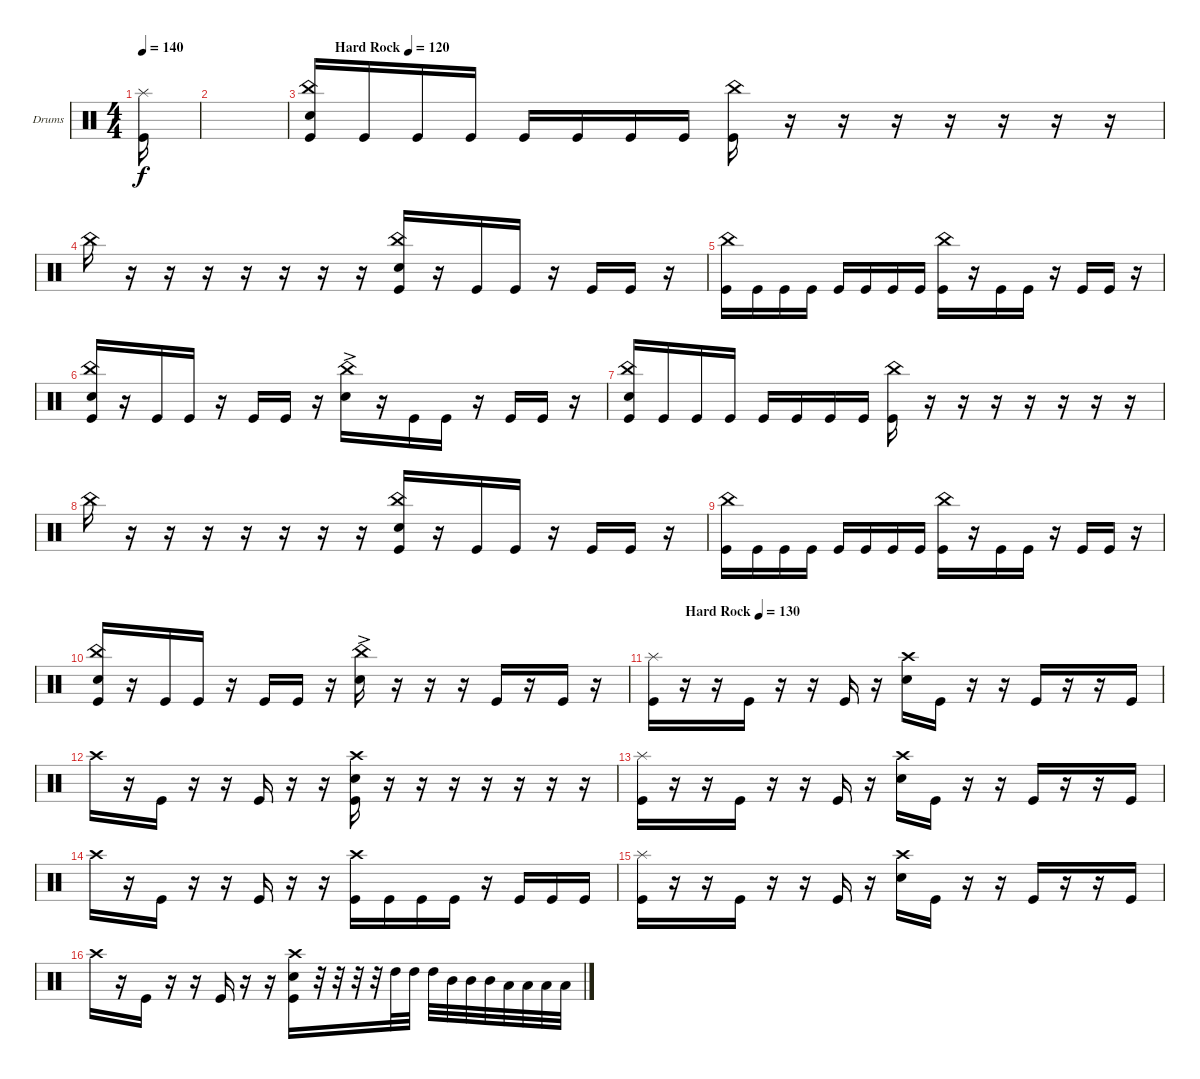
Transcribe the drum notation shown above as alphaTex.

\bracketExtendMode groupsimilarinstruments
\firstSystemTrackNameOrientation horizontal
\otherSystemsTrackNameOrientation horizontal
\track ("Drumkit" "Drums") {instrument percussion}
\staff {score}
\articulation defaults
\ts (4 4)
\tempo 140
\clef neutral
\ks c
("Kick (hit)" "Splash (hit)").16{dy f} |
|
\tempo (120 "Hard Rock" 0.0277778)
("Kick (hit)" "China (hit)" "Snare (hit) 2").16 "Kick (hit)".16 "Kick (hit)".16 "Kick (hit)".16 "Kick (hit)".16 "Kick (hit)".16 "Kick (hit)".16 "Kick (hit)".16 ("Kick (hit)" "China (hit)").16 r.16 r.16 r.16 r.16 r.16 r.16 r.16 |
"China (hit)".16 r.16 r.16 r.16 r.16 r.16 r.16 r.16 ("China (hit)" "Kick (hit)" "Snare (hit) 2").16 r.16 "Kick (hit)".16 "Kick (hit)".16 r.16 "Kick (hit)".16 "Kick (hit)".16 r.16 |
("Kick (hit)" "China (hit)").16 "Kick (hit)".16 "Kick (hit)".16 "Kick (hit)".16 "Kick (hit)".16 "Kick (hit)".16 "Kick (hit)".16 "Kick (hit)".16 ("Kick (hit)" "China (hit)").16 r.16 "Kick (hit)".16 "Kick (hit)".16 r.16 "Kick (hit)".16 "Kick (hit)".16 r.16 |
("Kick (hit)" "China (hit)" "Snare (hit) 2").16 r.16 "Kick (hit)".16 "Kick (hit)".16 r.16 "Kick (hit)".16 "Kick (hit)".16 r.16 ("China (hit)" "Snare (hit) 2"{ac}).16 r.16 "Kick (hit)".16 "Kick (hit)".16 r.16 "Kick (hit)".16 "Kick (hit)".16 r.16 |
("Kick (hit)" "China (hit)" "Snare (hit) 2").16 "Kick (hit)".16 "Kick (hit)".16 "Kick (hit)".16 "Kick (hit)".16 "Kick (hit)".16 "Kick (hit)".16 "Kick (hit)".16 ("Kick (hit)" "China (hit)").16 r.16 r.16 r.16 r.16 r.16 r.16 r.16 |
"China (hit)".16 r.16 r.16 r.16 r.16 r.16 r.16 r.16 ("China (hit)" "Kick (hit)" "Snare (hit) 2").16 r.16 "Kick (hit)".16 "Kick (hit)".16 r.16 "Kick (hit)".16 "Kick (hit)".16 r.16 |
("Kick (hit)" "China (hit)").16 "Kick (hit)".16 "Kick (hit)".16 "Kick (hit)".16 "Kick (hit)".16 "Kick (hit)".16 "Kick (hit)".16 "Kick (hit)".16 ("Kick (hit)" "China (hit)").16 r.16 "Kick (hit)".16 "Kick (hit)".16 r.16 "Kick (hit)".16 "Kick (hit)".16 r.16 |
("Kick (hit)" "China (hit)" "Snare (hit) 2").16 r.16 "Kick (hit)".16 "Kick (hit)".16 r.16 "Kick (hit)".16 "Kick (hit)".16 r.16 ("China (hit)" "Snare (hit) 2"{ac}).16 r.16 r.16 r.16 "Kick (hit)".16 r.16 "Kick (hit)".16 r.16 |
\tempo (130 "Hard Rock" 0.0625)
("Splash (hit)" "Kick (hit)").16 r.16 r.16 "Kick (hit)".16 r.16 r.16 "Kick (hit)".16 r.16 ("Crash high (hit)" "Snare (hit) 2").16 "Kick (hit)".16 r.16 r.16 "Kick (hit)".16 r.16 r.16 "Kick (hit)".16 |
"Crash high (hit)".16 r.16 "Kick (hit)".16 r.16 r.16 "Kick (hit)".16 r.16 r.16 ("Crash high (hit)" "Kick (hit)" "Snare (hit) 2").16 r.16 r.16 r.16 r.16 r.16 r.16 r.16 |
("Splash (hit)" "Kick (hit)").16 r.16 r.16 "Kick (hit)".16 r.16 r.16 "Kick (hit)".16 r.16 ("Crash high (hit)" "Snare (hit) 2").16 "Kick (hit)".16 r.16 r.16 "Kick (hit)".16 r.16 r.16 "Kick (hit)".16 |
"Crash high (hit)".16 r.16 "Kick (hit)".16 r.16 r.16 "Kick (hit)".16 r.16 r.16 ("Crash high (hit)" "Kick (hit)").16 "Kick (hit)".16 "Kick (hit)".16 "Kick (hit)".16 r.16 "Kick (hit)".16 "Kick (hit)".16 "Kick (hit)".16 |
("Splash (hit)" "Kick (hit)").16 r.16 r.16 "Kick (hit)".16 r.16 r.16 "Kick (hit)".16 r.16 ("Crash high (hit)" "Snare (hit) 2").16 "Kick (hit)".16 r.16 r.16 "Kick (hit)".16 r.16 r.16 "Kick (hit)".16 |
"Crash high (hit)".16 r.16 "Kick (hit)".16 r.16 r.16 "Kick (hit)".16 r.16 r.16 ("Crash high (hit)" "Kick (hit)" "Snare (hit) 2").16 r.32 r.32 r.32 r.32 "High Tom (hit)".32 "High Tom (hit)".32 "High Tom (hit)".32 "Mid Tom (hit)".32 "Mid Tom (hit)".32 "Mid Tom (hit)".32 "Low Tom (hit)".32 "Low Tom (hit)".32 "Low Tom (hit)".32 "Low Tom (hit)".32
